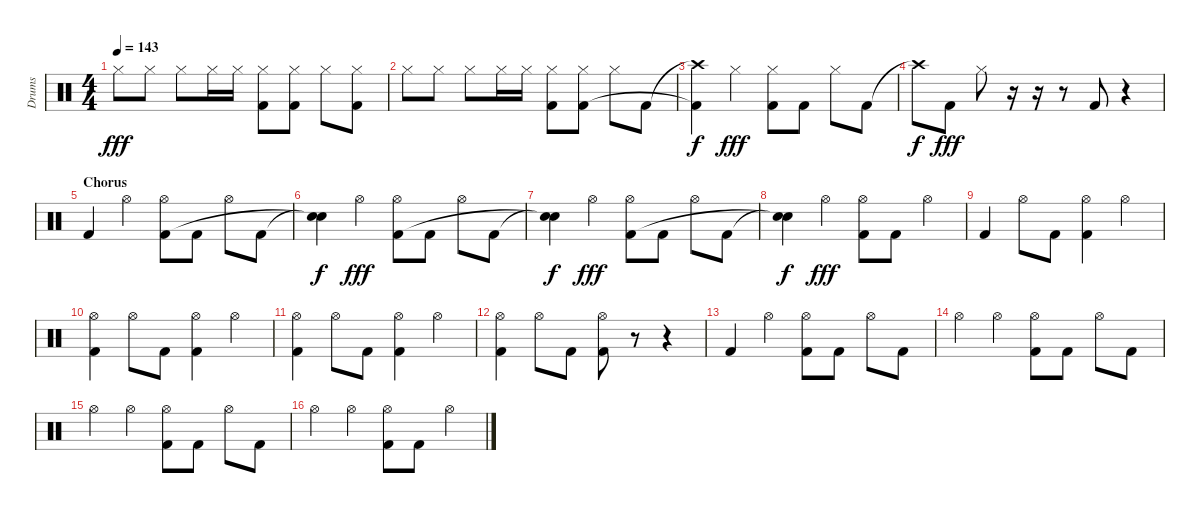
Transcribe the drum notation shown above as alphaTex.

\track ("Drums" "Drums") {instrument percussion}
\staff {score}
\articulation defaults
\ts (4 4)
\tempo 143
\clef neutral
\ks c "Hi-Hat (closed)".8{dy fff} "Hi-Hat (closed)".8 "Hi-Hat (closed)".8 "Hi-Hat (closed)".16 "Hi-Hat (closed)".16
("Hi-Hat (closed)" "Kick (hit) 2").8 ("Hi-Hat (closed)" "Kick (hit) 2").8 "Hi-Hat (closed)".8 ("Hi-Hat (closed)" "Kick (hit) 2").8 |
"Hi-Hat (closed)".8 "Hi-Hat (closed)".8 "Hi-Hat (closed)".8 "Hi-Hat (closed)".16 "Hi-Hat (closed)".16 ("Hi-Hat (closed)" "Kick (hit) 2").8 ("Hi-Hat (closed)" "Kick (hit) 2").8 "Hi-Hat (closed)".8 "Kick (hit) 2".8 |
("Crash high (hit)"{t} "Kick (hit) 2"{t}).4{dy f} "Hi-Hat (closed)".4{dy fff} ("Hi-Hat (closed)" "Kick (hit) 2").8 "Kick (hit) 2".8 "Hi-Hat (closed)".8 "Kick (hit) 2".8 |
"Crash high (hit)"{t}.8{dy f} "Kick (hit) 2".8{dy fff} "Hi-Hat (closed)".8 r.16 r.16 r.8 "Kick (hit) 2".8 r.4 |
\section ("" "Chorus")
"Kick (hit) 2".4 "Hi-Hat (open)".4 ("Hi-Hat (open)" "Kick (hit) 2").8 "Kick (hit) 2".8 "Hi-Hat (open)".8 "Kick (hit) 2".8 |
("Snare (hit)"{t} "Snare (hit)"{t}).4{dy f} "Hi-Hat (open)".4{dy fff} ("Hi-Hat (open)" "Kick (hit) 2").8 "Kick (hit) 2".8 "Hi-Hat (open)".8 "Kick (hit) 2".8 |
("Snare (hit)"{t} "Snare (hit)"{t}).4{dy f} "Hi-Hat (open)".4{dy fff} ("Hi-Hat (open)" "Kick (hit) 2").8 "Kick (hit) 2".8 "Hi-Hat (open)".8 "Kick (hit) 2".8 |
("Snare (hit)"{t} "Snare (hit)"{t}).4{dy f} "Hi-Hat (open)".4{dy fff} ("Hi-Hat (open)" "Kick (hit) 2").8 "Kick (hit) 2".8 "Hi-Hat (open)".4 |
"Kick (hit) 2".4 "Hi-Hat (open)".8 "Kick (hit) 2".8 ("Hi-Hat (open)" "Kick (hit) 2").4 "Hi-Hat (open)".4 |
("Hi-Hat (open)" "Kick (hit) 2").4 "Hi-Hat (open)".8 "Kick (hit) 2".8 ("Hi-Hat (open)" "Kick (hit) 2").4 "Hi-Hat (open)".4 |
("Hi-Hat (open)" "Kick (hit) 2").4 "Hi-Hat (open)".8 "Kick (hit) 2".8 ("Hi-Hat (open)" "Kick (hit) 2").4 "Hi-Hat (open)".4 |
("Hi-Hat (open)" "Kick (hit) 2").4 "Hi-Hat (open)".8 "Kick (hit) 2".8 ("Hi-Hat (open)" "Kick (hit) 2").8 r.8 r.4 |
"Kick (hit) 2".4 "Hi-Hat (open)".4 ("Hi-Hat (open)" "Kick (hit) 2").8 "Kick (hit) 2".8 "Hi-Hat (open)".8 "Kick (hit) 2".8 |
"Hi-Hat (open)".4 "Hi-Hat (open)".4 ("Hi-Hat (open)" "Kick (hit) 2").8 "Kick (hit) 2".8 "Hi-Hat (open)".8 "Kick (hit) 2".8 |
"Hi-Hat (open)".4 "Hi-Hat (open)".4 ("Hi-Hat (open)" "Kick (hit) 2").8 "Kick (hit) 2".8 "Hi-Hat (open)".8 "Kick (hit) 2".8 |
"Hi-Hat (open)".4 "Hi-Hat (open)".4 ("Hi-Hat (open)" "Kick (hit) 2").8 "Kick (hit) 2".8 "Hi-Hat (open)".4
